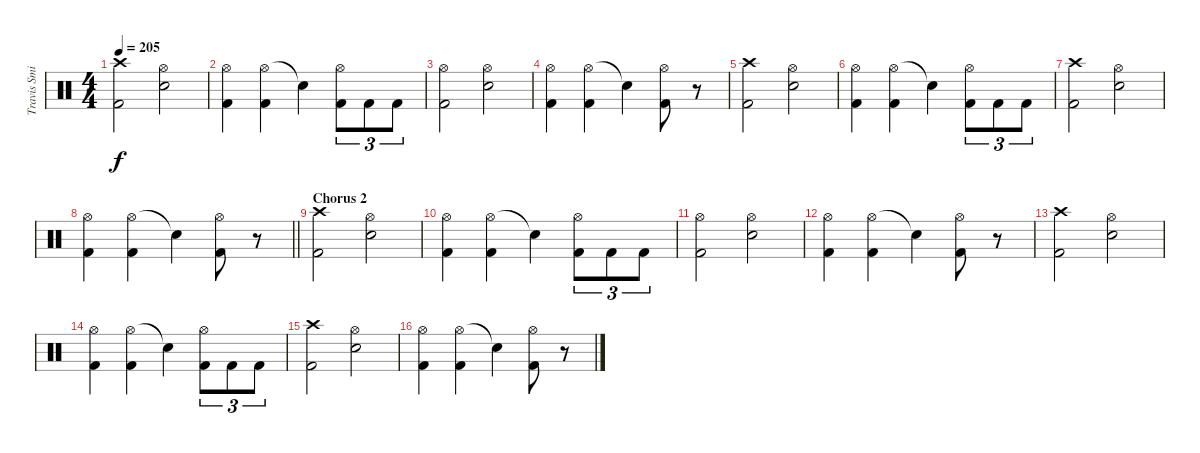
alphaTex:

\track ("Travis Smith" "Travis Smi") {instrument percussion}
\staff {score}
\articulation defaults
\ts (4 4)
\tempo 205
\clef neutral
\ks c
("Crash high (hit)" "Kick (hit) 2").2{dy f} ("Hi-Hat (open)" "Snare (hit) 2").2 |
("Hi-Hat (open)" "Kick (hit) 2").4 ("Hi-Hat (open)" "Kick (hit) 2").4 "Snare (hit)"{t}.4 ("Hi-Hat (open)" "Kick (hit) 2").8{tu (3 2)} "Kick (hit) 2".8{tu (3 2)} "Kick (hit) 2".8{tu (3 2)} |
("Hi-Hat (open)" "Kick (hit) 2").2 ("Hi-Hat (open)" "Snare (hit) 2").2 |
("Hi-Hat (open)" "Kick (hit) 2").4 ("Hi-Hat (open)" "Kick (hit) 2").4 "Snare (hit)"{t}.4 ("Hi-Hat (open)" "Kick (hit) 2").8 r.8 |
("Crash high (hit)" "Kick (hit) 2").2 ("Hi-Hat (open)" "Snare (hit) 2").2 |
("Hi-Hat (open)" "Kick (hit) 2").4 ("Hi-Hat (open)" "Kick (hit) 2").4 "Snare (hit)"{t}.4 ("Hi-Hat (open)" "Kick (hit) 2").8{tu (3 2)} "Kick (hit) 2".8{tu (3 2)} "Kick (hit) 2".8{tu (3 2)} |
("Crash high (hit)" "Kick (hit) 2").2 ("Hi-Hat (open)" "Snare (hit) 2").2 |
\barLineRight lightlight
("Hi-Hat (open)" "Kick (hit) 2").4 ("Hi-Hat (open)" "Kick (hit) 2").4 "Snare (hit)"{t}.4 ("Hi-Hat (open)" "Kick (hit) 2").8 r.8 |
\section ("" "Chorus 2")
("Crash high (hit)" "Kick (hit) 2").2 ("Hi-Hat (open)" "Snare (hit) 2").2 |
("Hi-Hat (open)" "Kick (hit) 2").4 ("Hi-Hat (open)" "Kick (hit) 2").4 "Snare (hit)"{t}.4 ("Hi-Hat (open)" "Kick (hit) 2").8{tu (3 2)} "Kick (hit) 2".8{tu (3 2)} "Kick (hit) 2".8{tu (3 2)} |
("Hi-Hat (open)" "Kick (hit) 2").2 ("Hi-Hat (open)" "Snare (hit) 2").2 |
("Hi-Hat (open)" "Kick (hit) 2").4 ("Hi-Hat (open)" "Kick (hit) 2").4 "Snare (hit)"{t}.4 ("Hi-Hat (open)" "Kick (hit) 2").8 r.8 |
("Crash high (hit)" "Kick (hit) 2").2 ("Hi-Hat (open)" "Snare (hit) 2").2 |
("Hi-Hat (open)" "Kick (hit) 2").4 ("Hi-Hat (open)" "Kick (hit) 2").4 "Snare (hit)"{t}.4 ("Hi-Hat (open)" "Kick (hit) 2").8{tu (3 2)} "Kick (hit) 2".8{tu (3 2)} "Kick (hit) 2".8{tu (3 2)} |
("Crash high (hit)" "Kick (hit) 2").2 ("Hi-Hat (open)" "Snare (hit) 2").2 |
("Hi-Hat (open)" "Kick (hit) 2").4 ("Hi-Hat (open)" "Kick (hit) 2").4 "Snare (hit)"{t}.4 ("Hi-Hat (open)" "Kick (hit) 2").8 r.8
